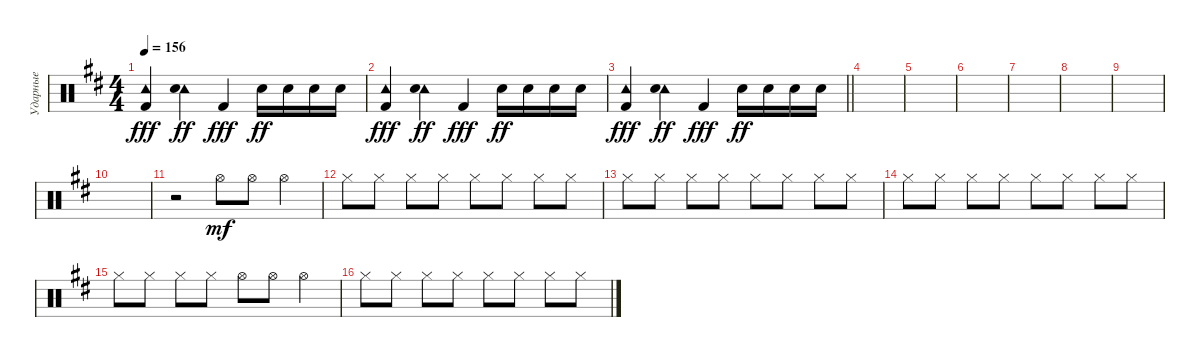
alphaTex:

\track ("Ударные" "Ударные") {instrument percussion}
\staff {score}
\articulation defaults
\ts (4 4)
\tempo 156
\clef neutral
\ks bminor
("Tambourine (hit)" "Kick (hit) 2").4{dy fff} ("Tambourine (hit)" "Electric Snare (hit)").4{dy ff} "Kick (hit) 2".4{dy fff} "Electric Snare (hit)".16{dy ff} "Electric Snare (hit)".16 "Electric Snare (hit)".16 "Electric Snare (hit)".16 |
("Tambourine (hit)" "Kick (hit) 2").4{dy fff} ("Tambourine (hit)" "Electric Snare (hit)").4{dy ff} "Kick (hit) 2".4{dy fff} "Electric Snare (hit)".16{dy ff} "Electric Snare (hit)".16 "Electric Snare (hit)".16 "Electric Snare (hit)".16 |
\barLineRight lightlight
("Tambourine (hit)" "Kick (hit) 2").4{dy fff} ("Tambourine (hit)" "Electric Snare (hit)").4{dy ff} "Kick (hit) 2".4{dy fff} "Electric Snare (hit)".16{dy ff} "Electric Snare (hit)".16 "Electric Snare (hit)".16 "Electric Snare (hit)".16 |
|
|
|
|
|
|
|
r.2 "Hi-Hat (open)".8{dy mf} "Hi-Hat (open)".8 "Hi-Hat (open)".4 |
"Hi-Hat (closed)".8 "Hi-Hat (closed)".8 "Hi-Hat (closed)".8 "Hi-Hat (closed)".8 "Hi-Hat (closed)".8 "Hi-Hat (closed)".8 "Hi-Hat (closed)".8 "Hi-Hat (closed)".8 |
"Hi-Hat (closed)".8 "Hi-Hat (closed)".8 "Hi-Hat (closed)".8 "Hi-Hat (closed)".8 "Hi-Hat (closed)".8 "Hi-Hat (closed)".8 "Hi-Hat (closed)".8 "Hi-Hat (closed)".8 |
"Hi-Hat (closed)".8 "Hi-Hat (closed)".8 "Hi-Hat (closed)".8 "Hi-Hat (closed)".8 "Hi-Hat (closed)".8 "Hi-Hat (closed)".8 "Hi-Hat (closed)".8 "Hi-Hat (closed)".8 |
"Hi-Hat (closed)".8 "Hi-Hat (closed)".8 "Hi-Hat (closed)".8 "Hi-Hat (closed)".8 "Hi-Hat (open)".8 "Hi-Hat (open)".8 "Hi-Hat (open)".4 |
"Hi-Hat (closed)".8 "Hi-Hat (closed)".8 "Hi-Hat (closed)".8 "Hi-Hat (closed)".8 "Hi-Hat (closed)".8 "Hi-Hat (closed)".8 "Hi-Hat (closed)".8 "Hi-Hat (closed)".8
